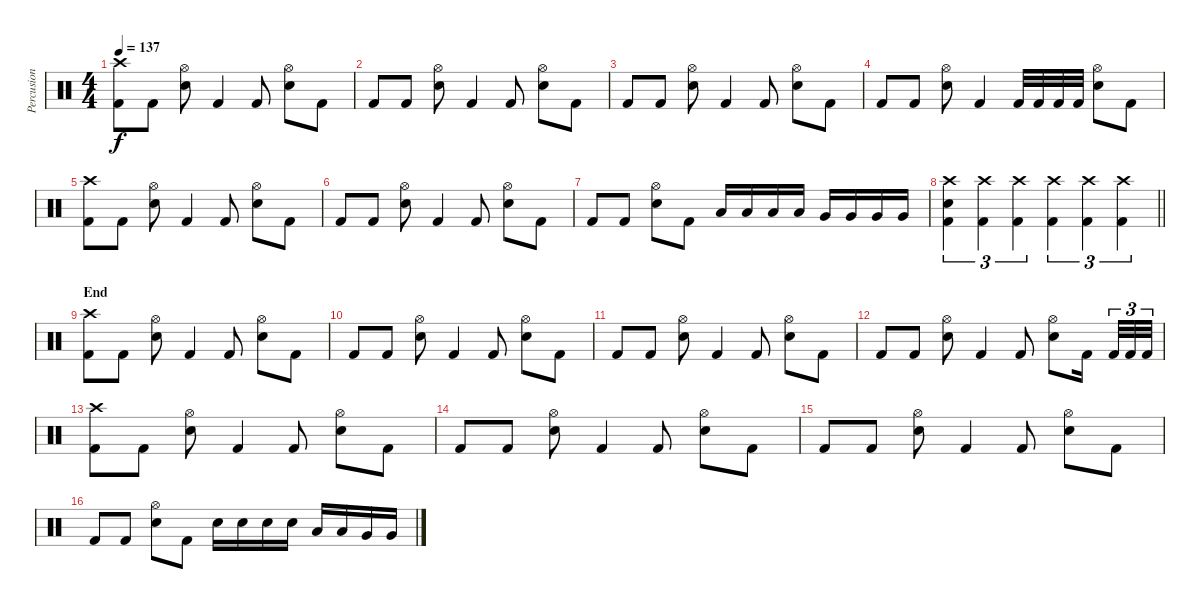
\track ("Percusion" "Percusion") {instrument percussion}
\staff {score}
\articulation defaults
\ts (4 4)
\tempo 137
\clef neutral
\ks c
("Crash high (hit)" "Kick (hit) 2").8{dy f} "Kick (hit) 2".8 ("Hi-Hat (open)" "Snare (hit) 2").8 "Kick (hit) 2".4 "Kick (hit) 2".8 ("Hi-Hat (open)" "Snare (hit) 2").8 "Kick (hit) 2".8 |
"Kick (hit) 2".8 "Kick (hit) 2".8 ("Hi-Hat (open)" "Snare (hit) 2").8 "Kick (hit) 2".4 "Kick (hit) 2".8 ("Hi-Hat (open)" "Snare (hit) 2").8 "Kick (hit) 2".8 |
"Kick (hit) 2".8 "Kick (hit) 2".8 ("Hi-Hat (open)" "Snare (hit) 2").8 "Kick (hit) 2".4 "Kick (hit) 2".8 ("Hi-Hat (open)" "Snare (hit) 2").8 "Kick (hit) 2".8 |
"Kick (hit) 2".8 "Kick (hit) 2".8 ("Hi-Hat (open)" "Snare (hit) 2").8 "Kick (hit) 2".4 "Kick (hit) 2".32 "Kick (hit) 2".32 "Kick (hit) 2".32 "Kick (hit) 2".32 ("Hi-Hat (open)" "Snare (hit) 2").8 "Kick (hit) 2".8 |
("Crash high (hit)" "Kick (hit) 2").8 "Kick (hit) 2".8 ("Hi-Hat (open)" "Snare (hit) 2").8 "Kick (hit) 2".4 "Kick (hit) 2".8 ("Hi-Hat (open)" "Snare (hit) 2").8 "Kick (hit) 2".8 |
"Kick (hit) 2".8 "Kick (hit) 2".8 ("Hi-Hat (open)" "Snare (hit) 2").8 "Kick (hit) 2".4 "Kick (hit) 2".8 ("Hi-Hat (open)" "Snare (hit) 2").8 "Kick (hit) 2".8 |
"Kick (hit) 2".8 "Kick (hit) 2".8 ("Hi-Hat (open)" "Snare (hit) 2").8 "Kick (hit) 2".8 "Low Tom (hit)".16 "Low Tom (hit)".16 "Low Tom (hit)".16 "Low Tom (hit)".16 "Very Low Tom (hit)".16 "Very Low Tom (hit)".16 "Very Low Tom (hit)".16 "Very Low Tom (hit)".16 |
\barLineRight lightlight
("Crash high (hit)" "Snare (hit) 2" "Kick (hit) 2").4{tu (3 2)} ("Crash high (hit)" "Kick (hit) 2").4{tu (3 2)} ("Crash high (hit)" "Kick (hit) 2").4{tu (3 2)} ("Crash high (hit)" "Kick (hit) 2").4{tu (3 2)} ("Crash high (hit)" "Kick (hit) 2").4{tu (3 2)} ("Crash high (hit)" "Kick (hit) 2").4{tu (3 2)} |
\section ("" "End")
("Crash high (hit)" "Kick (hit) 2").8 "Kick (hit) 2".8 ("Hi-Hat (open)" "Snare (hit) 2").8 "Kick (hit) 2".4 "Kick (hit) 2".8 ("Hi-Hat (open)" "Snare (hit) 2").8 "Kick (hit) 2".8 |
"Kick (hit) 2".8 "Kick (hit) 2".8 ("Hi-Hat (open)" "Snare (hit) 2").8 "Kick (hit) 2".4 "Kick (hit) 2".8 ("Hi-Hat (open)" "Snare (hit) 2").8 "Kick (hit) 2".8 |
"Kick (hit) 2".8 "Kick (hit) 2".8 ("Hi-Hat (open)" "Snare (hit) 2").8 "Kick (hit) 2".4 "Kick (hit) 2".8 ("Hi-Hat (open)" "Snare (hit) 2").8 "Kick (hit) 2".8 |
"Kick (hit) 2".8 "Kick (hit) 2".8 ("Hi-Hat (open)" "Snare (hit) 2").8 "Kick (hit) 2".4 "Kick (hit) 2".8 ("Hi-Hat (open)" "Snare (hit) 2").8 "Kick (hit) 2".16{beam splitsecondary} "Kick (hit) 2".32{tu (3 2)} "Kick (hit) 2".32{tu (3 2)} "Kick (hit) 2".32{tu (3 2)} |
("Crash high (hit)" "Kick (hit) 2").8 "Kick (hit) 2".8 ("Hi-Hat (open)" "Snare (hit) 2").8 "Kick (hit) 2".4 "Kick (hit) 2".8 ("Hi-Hat (open)" "Snare (hit) 2").8 "Kick (hit) 2".8 |
"Kick (hit) 2".8 "Kick (hit) 2".8 ("Hi-Hat (open)" "Snare (hit) 2").8 "Kick (hit) 2".4 "Kick (hit) 2".8 ("Hi-Hat (open)" "Snare (hit) 2").8 "Kick (hit) 2".8 |
"Kick (hit) 2".8 "Kick (hit) 2".8 ("Hi-Hat (open)" "Snare (hit) 2").8 "Kick (hit) 2".4 "Kick (hit) 2".8 ("Hi-Hat (open)" "Snare (hit) 2").8 "Kick (hit) 2".8 |
"Kick (hit) 2".8 "Kick (hit) 2".8 ("Hi-Hat (open)" "Snare (hit) 2").8 "Kick (hit) 2".8 "Snare (hit) 2".16 "Snare (hit) 2".16 "Snare (hit) 2".16 "Snare (hit) 2".16 "Low Tom (hit)".16 "Low Tom (hit)".16 "Very Low Tom (hit)".16 "Very Low Tom (hit)".16
